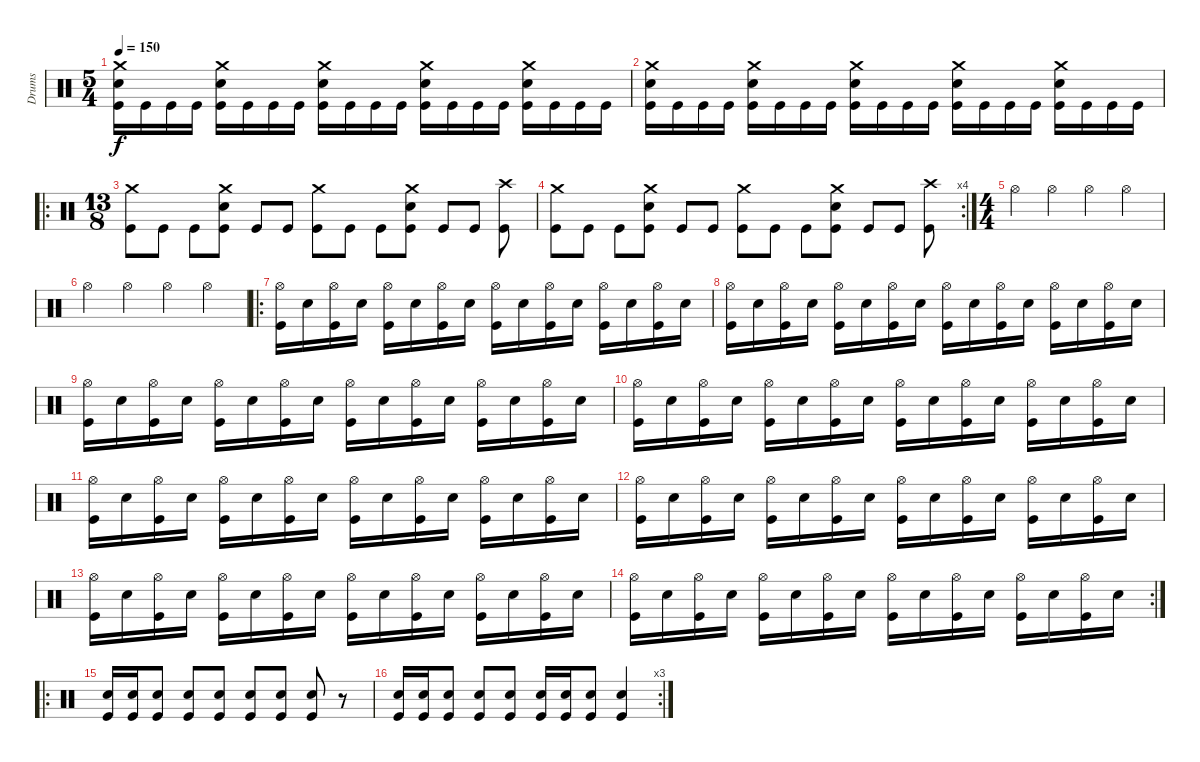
\track ("Drums" "Drums") {instrument percussion}
\staff {score}
\articulation defaults
\ts (5 4)
\tempo 150
\clef neutral
\ks c
("Crash medium (hit)" "Snare (hit) 2" "Kick (hit)").16{dy f} "Kick (hit)".16 "Kick (hit)".16 "Kick (hit)".16 ("Crash medium (hit)" "Snare (hit) 2" "Kick (hit)").16 "Kick (hit)".16 "Kick (hit)".16 "Kick (hit)".16 ("Crash medium (hit)" "Snare (hit) 2" "Kick (hit)").16 "Kick (hit)".16 "Kick (hit)".16 "Kick (hit)".16 ("Crash medium (hit)" "Snare (hit) 2" "Kick (hit)").16 "Kick (hit)".16 "Kick (hit)".16 "Kick (hit)".16 ("Crash medium (hit)" "Snare (hit) 2" "Kick (hit)").16 "Kick (hit)".16 "Kick (hit)".16 "Kick (hit)".16 |
("Crash medium (hit)" "Snare (hit) 2" "Kick (hit)").16 "Kick (hit)".16 "Kick (hit)".16 "Kick (hit)".16 ("Crash medium (hit)" "Snare (hit) 2" "Kick (hit)").16 "Kick (hit)".16 "Kick (hit)".16 "Kick (hit)".16 ("Crash medium (hit)" "Snare (hit) 2" "Kick (hit)").16 "Kick (hit)".16 "Kick (hit)".16 "Kick (hit)".16 ("Crash medium (hit)" "Snare (hit) 2" "Kick (hit)").16 "Kick (hit)".16 "Kick (hit)".16 "Kick (hit)".16 ("Crash medium (hit)" "Snare (hit) 2" "Kick (hit)").16 "Kick (hit)".16 "Kick (hit)".16 "Kick (hit)".16 |
\ro
\ts (13 8)
("Crash medium (hit)" "Kick (hit)").8 "Kick (hit)".8 "Kick (hit)".8 ("Crash medium (hit)" "Snare (hit) 2" "Kick (hit)").8 "Kick (hit)".8 "Kick (hit)".8 ("Crash medium (hit)" "Kick (hit)").8 "Kick (hit)".8 "Kick (hit)".8 ("Crash medium (hit)" "Snare (hit) 2" "Kick (hit)").8 "Kick (hit)".8 "Kick (hit)".8 ("Crash high (hit)" "Kick (hit)").8 |
\rc 4
("Crash medium (hit)" "Kick (hit)").8 "Kick (hit)".8 "Kick (hit)".8 ("Crash medium (hit)" "Snare (hit) 2" "Kick (hit)").8 "Kick (hit)".8 "Kick (hit)".8 ("Crash medium (hit)" "Kick (hit)").8 "Kick (hit)".8 "Kick (hit)".8 ("Crash medium (hit)" "Snare (hit) 2" "Kick (hit)").8 "Kick (hit)".8 "Kick (hit)".8 ("Crash high (hit)" "Kick (hit)").8 |
\ts (4 4)
"Hi-Hat (open)".4 "Hi-Hat (open)".4 "Hi-Hat (open)".4 "Hi-Hat (open)".4 |
"Hi-Hat (open)".4 "Hi-Hat (open)".4 "Hi-Hat (open)".4 "Hi-Hat (open)".4 |
\ro
("Hi-Hat (open)" "Kick (hit)").16 "Snare (hit) 2".16 ("Hi-Hat (open)" "Kick (hit)").16 "Snare (hit) 2".16 ("Hi-Hat (open)" "Kick (hit)").16 "Snare (hit) 2".16 ("Hi-Hat (open)" "Kick (hit)").16 "Snare (hit) 2".16 ("Hi-Hat (open)" "Kick (hit)").16 "Snare (hit) 2".16 ("Hi-Hat (open)" "Kick (hit)").16 "Snare (hit) 2".16 ("Hi-Hat (open)" "Kick (hit)").16 "Snare (hit) 2".16 ("Hi-Hat (open)" "Kick (hit)").16 "Snare (hit) 2".16 |
("Hi-Hat (open)" "Kick (hit)").16 "Snare (hit) 2".16 ("Hi-Hat (open)" "Kick (hit)").16 "Snare (hit) 2".16 ("Hi-Hat (open)" "Kick (hit)").16 "Snare (hit) 2".16 ("Hi-Hat (open)" "Kick (hit)").16 "Snare (hit) 2".16 ("Hi-Hat (open)" "Kick (hit)").16 "Snare (hit) 2".16 ("Hi-Hat (open)" "Kick (hit)").16 "Snare (hit) 2".16 ("Hi-Hat (open)" "Kick (hit)").16 "Snare (hit) 2".16 ("Hi-Hat (open)" "Kick (hit)").16 "Snare (hit) 2".16 |
("Hi-Hat (open)" "Kick (hit)").16 "Snare (hit) 2".16 ("Hi-Hat (open)" "Kick (hit)").16 "Snare (hit) 2".16 ("Hi-Hat (open)" "Kick (hit)").16 "Snare (hit) 2".16 ("Hi-Hat (open)" "Kick (hit)").16 "Snare (hit) 2".16 ("Hi-Hat (open)" "Kick (hit)").16 "Snare (hit) 2".16 ("Hi-Hat (open)" "Kick (hit)").16 "Snare (hit) 2".16 ("Hi-Hat (open)" "Kick (hit)").16 "Snare (hit) 2".16 ("Hi-Hat (open)" "Kick (hit)").16 "Snare (hit) 2".16 |
("Hi-Hat (open)" "Kick (hit)").16 "Snare (hit) 2".16 ("Hi-Hat (open)" "Kick (hit)").16 "Snare (hit) 2".16 ("Hi-Hat (open)" "Kick (hit)").16 "Snare (hit) 2".16 ("Hi-Hat (open)" "Kick (hit)").16 "Snare (hit) 2".16 ("Hi-Hat (open)" "Kick (hit)").16 "Snare (hit) 2".16 ("Hi-Hat (open)" "Kick (hit)").16 "Snare (hit) 2".16 ("Hi-Hat (open)" "Kick (hit)").16 "Snare (hit) 2".16 ("Hi-Hat (open)" "Kick (hit)").16 "Snare (hit) 2".16 |
("Hi-Hat (open)" "Kick (hit)").16 "Snare (hit) 2".16 ("Hi-Hat (open)" "Kick (hit)").16 "Snare (hit) 2".16 ("Hi-Hat (open)" "Kick (hit)").16 "Snare (hit) 2".16 ("Hi-Hat (open)" "Kick (hit)").16 "Snare (hit) 2".16 ("Hi-Hat (open)" "Kick (hit)").16 "Snare (hit) 2".16 ("Hi-Hat (open)" "Kick (hit)").16 "Snare (hit) 2".16 ("Hi-Hat (open)" "Kick (hit)").16 "Snare (hit) 2".16 ("Hi-Hat (open)" "Kick (hit)").16 "Snare (hit) 2".16 |
("Hi-Hat (open)" "Kick (hit)").16 "Snare (hit) 2".16 ("Hi-Hat (open)" "Kick (hit)").16 "Snare (hit) 2".16 ("Hi-Hat (open)" "Kick (hit)").16 "Snare (hit) 2".16 ("Hi-Hat (open)" "Kick (hit)").16 "Snare (hit) 2".16 ("Hi-Hat (open)" "Kick (hit)").16 "Snare (hit) 2".16 ("Hi-Hat (open)" "Kick (hit)").16 "Snare (hit) 2".16 ("Hi-Hat (open)" "Kick (hit)").16 "Snare (hit) 2".16 ("Hi-Hat (open)" "Kick (hit)").16 "Snare (hit) 2".16 |
("Hi-Hat (open)" "Kick (hit)").16 "Snare (hit) 2".16 ("Hi-Hat (open)" "Kick (hit)").16 "Snare (hit) 2".16 ("Hi-Hat (open)" "Kick (hit)").16 "Snare (hit) 2".16 ("Hi-Hat (open)" "Kick (hit)").16 "Snare (hit) 2".16 ("Hi-Hat (open)" "Kick (hit)").16 "Snare (hit) 2".16 ("Hi-Hat (open)" "Kick (hit)").16 "Snare (hit) 2".16 ("Hi-Hat (open)" "Kick (hit)").16 "Snare (hit) 2".16 ("Hi-Hat (open)" "Kick (hit)").16 "Snare (hit) 2".16 |
\rc 2
("Hi-Hat (open)" "Kick (hit)").16 "Snare (hit) 2".16 ("Hi-Hat (open)" "Kick (hit)").16 "Snare (hit) 2".16 ("Hi-Hat (open)" "Kick (hit)").16 "Snare (hit) 2".16 ("Hi-Hat (open)" "Kick (hit)").16 "Snare (hit) 2".16 ("Hi-Hat (open)" "Kick (hit)").16 "Snare (hit) 2".16 ("Hi-Hat (open)" "Kick (hit)").16 "Snare (hit) 2".16 ("Hi-Hat (open)" "Kick (hit)").16 "Snare (hit) 2".16 ("Hi-Hat (open)" "Kick (hit)").16 "Snare (hit) 2".16 |
\ro
("Snare (hit) 2" "Kick (hit)").16 ("Snare (hit) 2" "Kick (hit)").16 ("Snare (hit) 2" "Kick (hit)").8 ("Snare (hit) 2" "Kick (hit)").8 ("Snare (hit) 2" "Kick (hit)").8 ("Snare (hit) 2" "Kick (hit)").8 ("Snare (hit) 2" "Kick (hit)").8 ("Snare (hit) 2" "Kick (hit)").8 r.8 |
\rc 3
("Snare (hit) 2" "Kick (hit)").16 ("Snare (hit) 2" "Kick (hit)").16 ("Snare (hit) 2" "Kick (hit)").8 ("Snare (hit) 2" "Kick (hit)").8 ("Snare (hit) 2" "Kick (hit)").8 ("Snare (hit) 2" "Kick (hit)").16 ("Snare (hit) 2" "Kick (hit)").16 ("Snare (hit) 2" "Kick (hit)").8 ("Snare (hit) 2" "Kick (hit)").4
